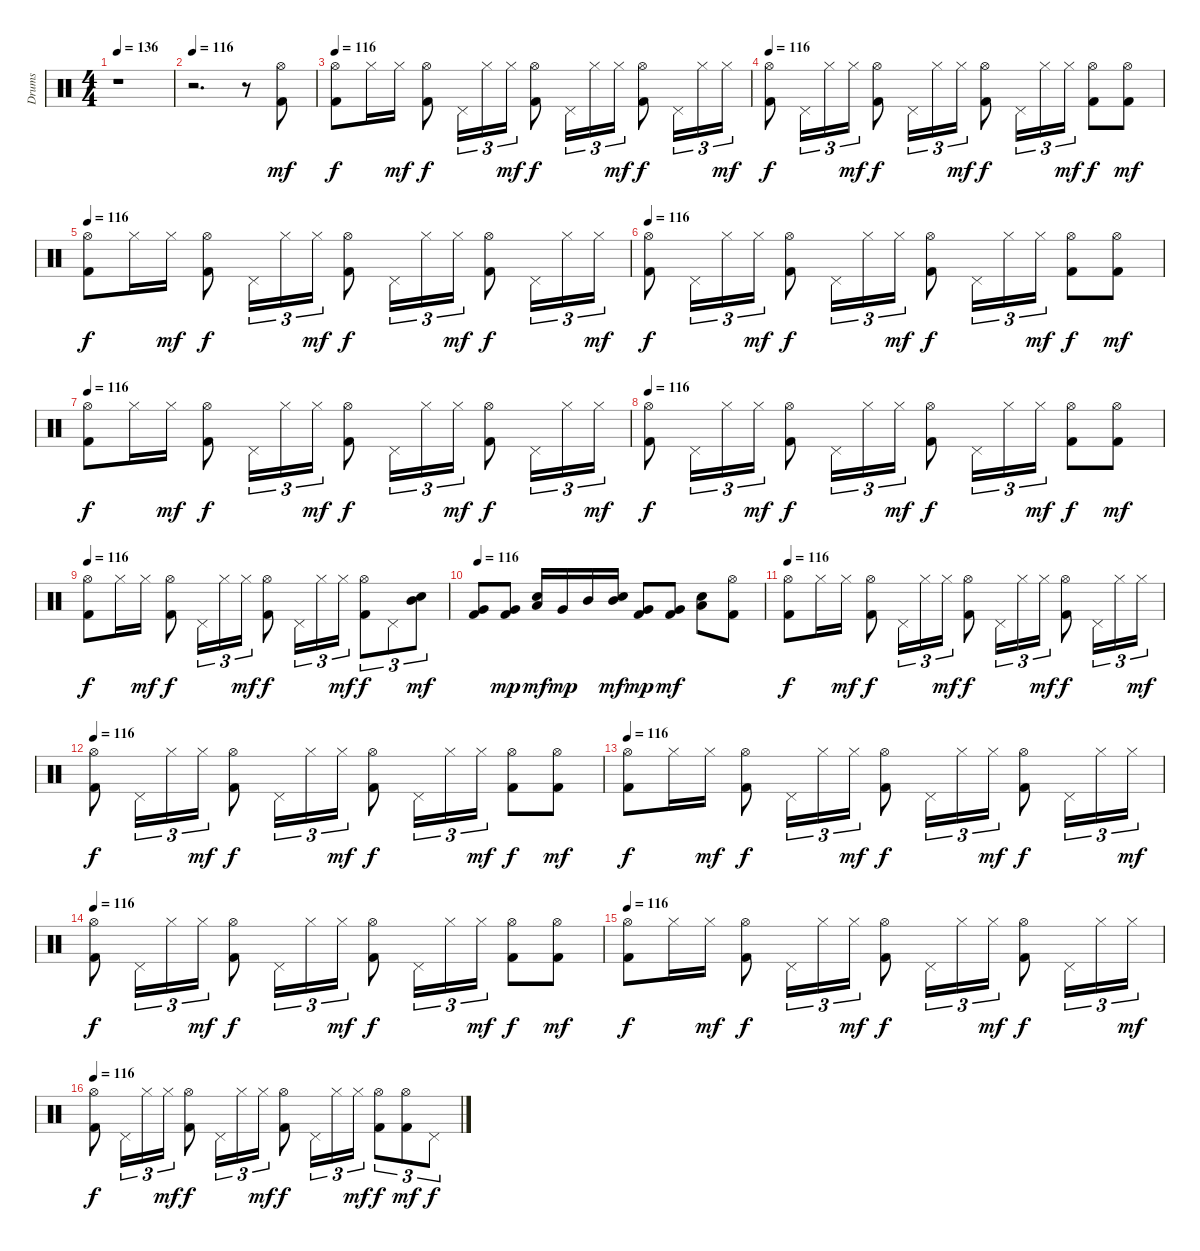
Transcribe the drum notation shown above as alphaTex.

\track ("Drums" "Drums") {instrument percussion}
\staff {score}
\articulation defaults
\ts (4 4)
\tempo 136
\tempo 116
\tempo 136
\clef neutral
\ks c
r.1{dy mf} |
\tempo 116
r.2{d} r.8 ("Kick (hit) 2" "Hi-Hat (open)").8 |
\tempo 116
("Kick (hit) 2" "Hi-Hat (open)").8{dy f} "Hi-Hat (closed)".16 "Hi-Hat (closed)".16{dy mf} ("Kick (hit) 2" "Hi-Hat (open)").8{dy f} "Pedal Hi-Hat (hit)".16{tu (3 2)} "Hi-Hat (closed)".16{tu (3 2)} "Hi-Hat (closed)".16{tu (3 2) dy mf} ("Kick (hit) 2" "Hi-Hat (open)").8{dy f} "Pedal Hi-Hat (hit)".16{tu (3 2)} "Hi-Hat (closed)".16{tu (3 2)} "Hi-Hat (closed)".16{tu (3 2) dy mf} ("Kick (hit) 2" "Hi-Hat (open)").8{dy f} "Pedal Hi-Hat (hit)".16{tu (3 2)} "Hi-Hat (closed)".16{tu (3 2)} "Hi-Hat (closed)".16{tu (3 2) dy mf} |
\tempo 116
("Kick (hit) 2" "Hi-Hat (open)").8{dy f} "Pedal Hi-Hat (hit)".16{tu (3 2)} "Hi-Hat (closed)".16{tu (3 2)} "Hi-Hat (closed)".16{tu (3 2) dy mf} ("Kick (hit) 2" "Hi-Hat (open)").8{dy f} "Pedal Hi-Hat (hit)".16{tu (3 2)} "Hi-Hat (closed)".16{tu (3 2)} "Hi-Hat (closed)".16{tu (3 2) dy mf} ("Kick (hit) 2" "Hi-Hat (open)").8{dy f} "Pedal Hi-Hat (hit)".16{tu (3 2)} "Hi-Hat (closed)".16{tu (3 2)} "Hi-Hat (closed)".16{tu (3 2) dy mf} ("Kick (hit) 2" "Hi-Hat (open)").8{dy f} ("Kick (hit) 2" "Hi-Hat (open)").8{dy mf} |
\tempo 116
("Kick (hit) 2" "Hi-Hat (open)").8{dy f} "Hi-Hat (closed)".16 "Hi-Hat (closed)".16{dy mf} ("Kick (hit) 2" "Hi-Hat (open)").8{dy f} "Pedal Hi-Hat (hit)".16{tu (3 2)} "Hi-Hat (closed)".16{tu (3 2)} "Hi-Hat (closed)".16{tu (3 2) dy mf} ("Kick (hit) 2" "Hi-Hat (open)").8{dy f} "Pedal Hi-Hat (hit)".16{tu (3 2)} "Hi-Hat (closed)".16{tu (3 2)} "Hi-Hat (closed)".16{tu (3 2) dy mf} ("Kick (hit) 2" "Hi-Hat (open)").8{dy f} "Pedal Hi-Hat (hit)".16{tu (3 2)} "Hi-Hat (closed)".16{tu (3 2)} "Hi-Hat (closed)".16{tu (3 2) dy mf} |
\tempo 116
("Kick (hit) 2" "Hi-Hat (open)").8{dy f} "Pedal Hi-Hat (hit)".16{tu (3 2)} "Hi-Hat (closed)".16{tu (3 2)} "Hi-Hat (closed)".16{tu (3 2) dy mf} ("Kick (hit) 2" "Hi-Hat (open)").8{dy f} "Pedal Hi-Hat (hit)".16{tu (3 2)} "Hi-Hat (closed)".16{tu (3 2)} "Hi-Hat (closed)".16{tu (3 2) dy mf} ("Kick (hit) 2" "Hi-Hat (open)").8{dy f} "Pedal Hi-Hat (hit)".16{tu (3 2)} "Hi-Hat (closed)".16{tu (3 2)} "Hi-Hat (closed)".16{tu (3 2) dy mf} ("Kick (hit) 2" "Hi-Hat (open)").8{dy f} ("Kick (hit) 2" "Hi-Hat (open)").8{dy mf} |
\tempo 116
("Kick (hit) 2" "Hi-Hat (open)").8{dy f} "Hi-Hat (closed)".16 "Hi-Hat (closed)".16{dy mf} ("Kick (hit) 2" "Hi-Hat (open)").8{dy f} "Pedal Hi-Hat (hit)".16{tu (3 2)} "Hi-Hat (closed)".16{tu (3 2)} "Hi-Hat (closed)".16{tu (3 2) dy mf} ("Kick (hit) 2" "Hi-Hat (open)").8{dy f} "Pedal Hi-Hat (hit)".16{tu (3 2)} "Hi-Hat (closed)".16{tu (3 2)} "Hi-Hat (closed)".16{tu (3 2) dy mf} ("Kick (hit) 2" "Hi-Hat (open)").8{dy f} "Pedal Hi-Hat (hit)".16{tu (3 2)} "Hi-Hat (closed)".16{tu (3 2)} "Hi-Hat (closed)".16{tu (3 2) dy mf} |
\tempo 116
("Kick (hit) 2" "Hi-Hat (open)").8{dy f} "Pedal Hi-Hat (hit)".16{tu (3 2)} "Hi-Hat (closed)".16{tu (3 2)} "Hi-Hat (closed)".16{tu (3 2) dy mf} ("Kick (hit) 2" "Hi-Hat (open)").8{dy f} "Pedal Hi-Hat (hit)".16{tu (3 2)} "Hi-Hat (closed)".16{tu (3 2)} "Hi-Hat (closed)".16{tu (3 2) dy mf} ("Kick (hit) 2" "Hi-Hat (open)").8{dy f} "Pedal Hi-Hat (hit)".16{tu (3 2)} "Hi-Hat (closed)".16{tu (3 2)} "Hi-Hat (closed)".16{tu (3 2) dy mf} ("Kick (hit) 2" "Hi-Hat (open)").8{dy f} ("Kick (hit) 2" "Hi-Hat (open)").8{dy mf} |
\tempo 116
("Kick (hit) 2" "Hi-Hat (open)").8{dy f} "Hi-Hat (closed)".16 "Hi-Hat (closed)".16{dy mf} ("Kick (hit) 2" "Hi-Hat (open)").8{dy f} "Pedal Hi-Hat (hit)".16{tu (3 2)} "Hi-Hat (closed)".16{tu (3 2)} "Hi-Hat (closed)".16{tu (3 2) dy mf} ("Kick (hit) 2" "Hi-Hat (open)").8{dy f} "Pedal Hi-Hat (hit)".16{tu (3 2)} "Hi-Hat (closed)".16{tu (3 2)} "Hi-Hat (closed)".16{tu (3 2) dy mf} ("Kick (hit) 2" "Hi-Hat (open)").8{tu (3 2) dy f} "Pedal Hi-Hat (hit)".8{tu (3 2)} ("Snare (hit) 2" "Mid Tom (hit)").8{tu (3 2) dy mf} |
\tempo 116
("Kick (hit) 2" "Very Low Tom (hit)").8 ("Kick (hit) 2" "Very Low Tom (hit)").8{dy mp} ("Snare (hit) 2" "Low Tom (hit)").16{dy mf} "Very Low Tom (hit)".16{dy mp} "Mid Tom (hit)".16 ("Snare (hit) 2" "Mid Tom (hit)").16{dy mf} ("Kick (hit) 2" "Very Low Tom (hit)").8{dy mp} ("Kick (hit) 2" "Very Low Tom (hit)").8{dy mf} ("Snare (hit) 2" "Low Tom (hit)").8 ("Kick (hit) 2" "Hi-Hat (open)").8 |
\tempo 116
("Kick (hit) 2" "Hi-Hat (open)").8{dy f} "Hi-Hat (closed)".16 "Hi-Hat (closed)".16{dy mf} ("Kick (hit) 2" "Hi-Hat (open)").8{dy f} "Pedal Hi-Hat (hit)".16{tu (3 2)} "Hi-Hat (closed)".16{tu (3 2)} "Hi-Hat (closed)".16{tu (3 2) dy mf} ("Kick (hit) 2" "Hi-Hat (open)").8{dy f} "Pedal Hi-Hat (hit)".16{tu (3 2)} "Hi-Hat (closed)".16{tu (3 2)} "Hi-Hat (closed)".16{tu (3 2) dy mf} ("Kick (hit) 2" "Hi-Hat (open)").8{dy f} "Pedal Hi-Hat (hit)".16{tu (3 2)} "Hi-Hat (closed)".16{tu (3 2)} "Hi-Hat (closed)".16{tu (3 2) dy mf} |
\tempo 116
("Kick (hit) 2" "Hi-Hat (open)").8{dy f} "Pedal Hi-Hat (hit)".16{tu (3 2)} "Hi-Hat (closed)".16{tu (3 2)} "Hi-Hat (closed)".16{tu (3 2) dy mf} ("Kick (hit) 2" "Hi-Hat (open)").8{dy f} "Pedal Hi-Hat (hit)".16{tu (3 2)} "Hi-Hat (closed)".16{tu (3 2)} "Hi-Hat (closed)".16{tu (3 2) dy mf} ("Kick (hit) 2" "Hi-Hat (open)").8{dy f} "Pedal Hi-Hat (hit)".16{tu (3 2)} "Hi-Hat (closed)".16{tu (3 2)} "Hi-Hat (closed)".16{tu (3 2) dy mf} ("Kick (hit) 2" "Hi-Hat (open)").8{dy f} ("Kick (hit) 2" "Hi-Hat (open)").8{dy mf} |
\tempo 116
("Kick (hit) 2" "Hi-Hat (open)").8{dy f} "Hi-Hat (closed)".16 "Hi-Hat (closed)".16{dy mf} ("Kick (hit) 2" "Hi-Hat (open)").8{dy f} "Pedal Hi-Hat (hit)".16{tu (3 2)} "Hi-Hat (closed)".16{tu (3 2)} "Hi-Hat (closed)".16{tu (3 2) dy mf} ("Kick (hit) 2" "Hi-Hat (open)").8{dy f} "Pedal Hi-Hat (hit)".16{tu (3 2)} "Hi-Hat (closed)".16{tu (3 2)} "Hi-Hat (closed)".16{tu (3 2) dy mf} ("Kick (hit) 2" "Hi-Hat (open)").8{dy f} "Pedal Hi-Hat (hit)".16{tu (3 2)} "Hi-Hat (closed)".16{tu (3 2)} "Hi-Hat (closed)".16{tu (3 2) dy mf} |
\tempo 116
("Kick (hit) 2" "Hi-Hat (open)").8{dy f} "Pedal Hi-Hat (hit)".16{tu (3 2)} "Hi-Hat (closed)".16{tu (3 2)} "Hi-Hat (closed)".16{tu (3 2) dy mf} ("Kick (hit) 2" "Hi-Hat (open)").8{dy f} "Pedal Hi-Hat (hit)".16{tu (3 2)} "Hi-Hat (closed)".16{tu (3 2)} "Hi-Hat (closed)".16{tu (3 2) dy mf} ("Kick (hit) 2" "Hi-Hat (open)").8{dy f} "Pedal Hi-Hat (hit)".16{tu (3 2)} "Hi-Hat (closed)".16{tu (3 2)} "Hi-Hat (closed)".16{tu (3 2) dy mf} ("Kick (hit) 2" "Hi-Hat (open)").8{dy f} ("Kick (hit) 2" "Hi-Hat (open)").8{dy mf} |
\tempo 116
("Kick (hit) 2" "Hi-Hat (open)").8{dy f} "Hi-Hat (closed)".16 "Hi-Hat (closed)".16{dy mf} ("Kick (hit) 2" "Hi-Hat (open)").8{dy f} "Pedal Hi-Hat (hit)".16{tu (3 2)} "Hi-Hat (closed)".16{tu (3 2)} "Hi-Hat (closed)".16{tu (3 2) dy mf} ("Kick (hit) 2" "Hi-Hat (open)").8{dy f} "Pedal Hi-Hat (hit)".16{tu (3 2)} "Hi-Hat (closed)".16{tu (3 2)} "Hi-Hat (closed)".16{tu (3 2) dy mf} ("Kick (hit) 2" "Hi-Hat (open)").8{dy f} "Pedal Hi-Hat (hit)".16{tu (3 2)} "Hi-Hat (closed)".16{tu (3 2)} "Hi-Hat (closed)".16{tu (3 2) dy mf} |
\tempo 116
("Kick (hit) 2" "Hi-Hat (open)").8{dy f} "Pedal Hi-Hat (hit)".16{tu (3 2)} "Hi-Hat (closed)".16{tu (3 2)} "Hi-Hat (closed)".16{tu (3 2) dy mf} ("Kick (hit) 2" "Hi-Hat (open)").8{dy f} "Pedal Hi-Hat (hit)".16{tu (3 2)} "Hi-Hat (closed)".16{tu (3 2)} "Hi-Hat (closed)".16{tu (3 2) dy mf} ("Kick (hit) 2" "Hi-Hat (open)").8{dy f} "Pedal Hi-Hat (hit)".16{tu (3 2)} "Hi-Hat (closed)".16{tu (3 2)} "Hi-Hat (closed)".16{tu (3 2) dy mf} ("Kick (hit) 2" "Hi-Hat (open)").8{tu (3 2) dy f} ("Kick (hit) 2" "Hi-Hat (open)").8{tu (3 2) dy mf} "Pedal Hi-Hat (hit)".8{tu (3 2) dy f}
